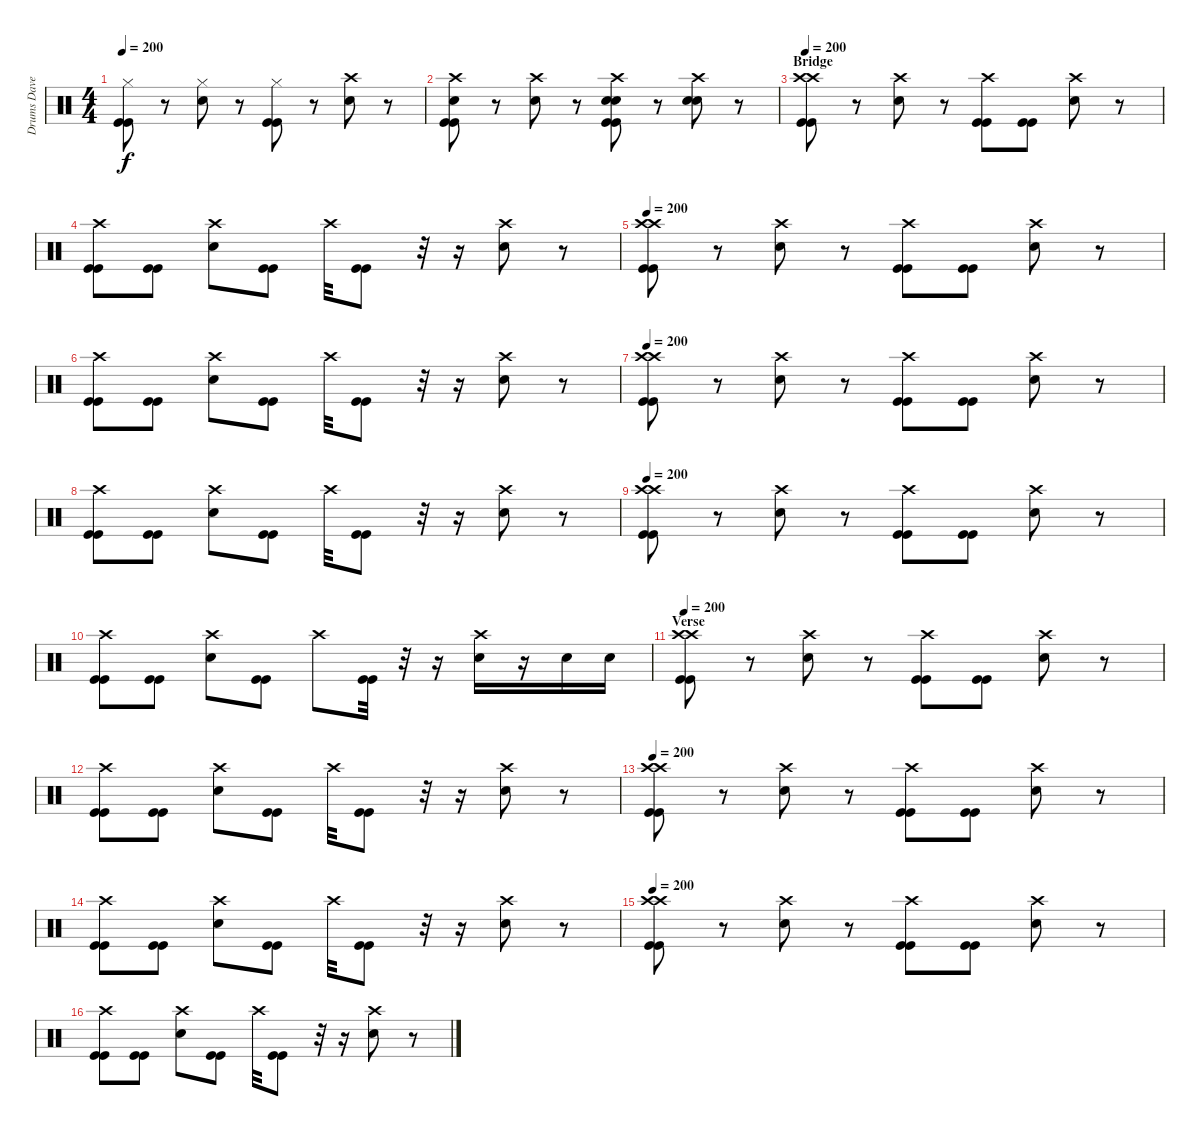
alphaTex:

\track ("Drums Dave Grohl" "Drums Dave") {instrument percussion}
\staff {score}
\articulation defaults
\ts (4 4)
\tempo 200
\clef neutral
\ks c
("Hi-Hat (closed)" "Kick (hit)" "Kick (hit)").8{dy f} r.8 ("Hi-Hat (closed)" "Electric Snare (hit)").8 r.8 ("Hi-Hat (closed)" "Kick (hit)" "Kick (hit)").8 r.8 ("Crash high (hit)" "Electric Snare (hit)").8 r.8 |
("Crash high (hit)" "Electric Snare (hit)" "Kick (hit)" "Kick (hit)").8 r.8 ("Crash high (hit)" "Electric Snare (hit)").8 r.8 ("Crash high (hit)" "Electric Snare (hit)" "Electric Snare (hit)" "Kick (hit)" "Kick (hit)").8 r.8 ("Crash high (hit)" "Electric Snare (hit)" "Electric Snare (hit)").8 r.8 |
\section ("" "Bridge")
\tempo 200
("Crash high (hit)" "Crash high (hit)" "Kick (hit)" "Kick (hit)").8 r.8 ("Crash high (hit)" "Electric Snare (hit)").8 r.8 ("Crash high (hit)" "Kick (hit)" "Kick (hit)").8 ("Kick (hit)" "Kick (hit)").8 ("Crash high (hit)" "Electric Snare (hit)").8 r.8 |
("Crash high (hit)" "Kick (hit)" "Kick (hit)").8 ("Kick (hit)" "Kick (hit)").8 ("Crash high (hit)" "Electric Snare (hit)").8 ("Kick (hit)" "Kick (hit)").8 "Crash high (hit)".32 ("Kick (hit)" "Kick (hit)").8 r.32 r.16 ("Crash high (hit)" "Electric Snare (hit)").8 r.8 |
\tempo 200
("Crash high (hit)" "Crash high (hit)" "Kick (hit)" "Kick (hit)").8 r.8 ("Crash high (hit)" "Electric Snare (hit)").8 r.8 ("Crash high (hit)" "Kick (hit)" "Kick (hit)").8 ("Kick (hit)" "Kick (hit)").8 ("Crash high (hit)" "Electric Snare (hit)").8 r.8 |
("Crash high (hit)" "Kick (hit)" "Kick (hit)").8 ("Kick (hit)" "Kick (hit)").8 ("Crash high (hit)" "Electric Snare (hit)").8 ("Kick (hit)" "Kick (hit)").8 "Crash high (hit)".32 ("Kick (hit)" "Kick (hit)").8 r.32 r.16 ("Crash high (hit)" "Electric Snare (hit)").8 r.8 |
\tempo 200
("Crash high (hit)" "Crash high (hit)" "Kick (hit)" "Kick (hit)").8 r.8 ("Crash high (hit)" "Electric Snare (hit)").8 r.8 ("Crash high (hit)" "Kick (hit)" "Kick (hit)").8 ("Kick (hit)" "Kick (hit)").8 ("Crash high (hit)" "Electric Snare (hit)").8 r.8 |
("Crash high (hit)" "Kick (hit)" "Kick (hit)").8 ("Kick (hit)" "Kick (hit)").8 ("Crash high (hit)" "Electric Snare (hit)").8 ("Kick (hit)" "Kick (hit)").8 "Crash high (hit)".32 ("Kick (hit)" "Kick (hit)").8 r.32 r.16 ("Crash high (hit)" "Electric Snare (hit)").8 r.8 |
\tempo 200
("Crash high (hit)" "Crash high (hit)" "Kick (hit)" "Kick (hit)").8 r.8 ("Crash high (hit)" "Electric Snare (hit)").8 r.8 ("Crash high (hit)" "Kick (hit)" "Kick (hit)").8 ("Kick (hit)" "Kick (hit)").8 ("Crash high (hit)" "Electric Snare (hit)").8 r.8 |
("Crash high (hit)" "Kick (hit)" "Kick (hit)").8 ("Kick (hit)" "Kick (hit)").8 ("Crash high (hit)" "Electric Snare (hit)").8 ("Kick (hit)" "Kick (hit)").8 "Crash high (hit)".8 ("Kick (hit)" "Kick (hit)").32 r.32 r.16 ("Crash high (hit)" "Electric Snare (hit)").16 r.16 "Electric Snare (hit)".16 "Electric Snare (hit)".16 |
\section ("" "Verse")
\tempo 200
("Crash high (hit)" "Crash high (hit)" "Kick (hit)" "Kick (hit)").8 r.8 ("Crash high (hit)" "Electric Snare (hit)").8 r.8 ("Crash high (hit)" "Kick (hit)" "Kick (hit)").8 ("Kick (hit)" "Kick (hit)").8 ("Crash high (hit)" "Electric Snare (hit)").8 r.8 |
("Crash high (hit)" "Kick (hit)" "Kick (hit)").8 ("Kick (hit)" "Kick (hit)").8 ("Crash high (hit)" "Electric Snare (hit)").8 ("Kick (hit)" "Kick (hit)").8 "Crash high (hit)".32 ("Kick (hit)" "Kick (hit)").8 r.32 r.16 ("Crash high (hit)" "Electric Snare (hit)").8 r.8 |
\tempo 200
("Crash high (hit)" "Crash high (hit)" "Kick (hit)" "Kick (hit)").8 r.8 ("Crash high (hit)" "Electric Snare (hit)").8 r.8 ("Crash high (hit)" "Kick (hit)" "Kick (hit)").8 ("Kick (hit)" "Kick (hit)").8 ("Crash high (hit)" "Electric Snare (hit)").8 r.8 |
("Crash high (hit)" "Kick (hit)" "Kick (hit)").8 ("Kick (hit)" "Kick (hit)").8 ("Crash high (hit)" "Electric Snare (hit)").8 ("Kick (hit)" "Kick (hit)").8 "Crash high (hit)".32 ("Kick (hit)" "Kick (hit)").8 r.32 r.16 ("Crash high (hit)" "Electric Snare (hit)").8 r.8 |
\tempo 200
("Crash high (hit)" "Crash high (hit)" "Kick (hit)" "Kick (hit)").8 r.8 ("Crash high (hit)" "Electric Snare (hit)").8 r.8 ("Crash high (hit)" "Kick (hit)" "Kick (hit)").8 ("Kick (hit)" "Kick (hit)").8 ("Crash high (hit)" "Electric Snare (hit)").8 r.8 |
("Crash high (hit)" "Kick (hit)" "Kick (hit)").8 ("Kick (hit)" "Kick (hit)").8 ("Crash high (hit)" "Electric Snare (hit)").8 ("Kick (hit)" "Kick (hit)").8 "Crash high (hit)".32 ("Kick (hit)" "Kick (hit)").8 r.32 r.16 ("Crash high (hit)" "Electric Snare (hit)").8 r.8
